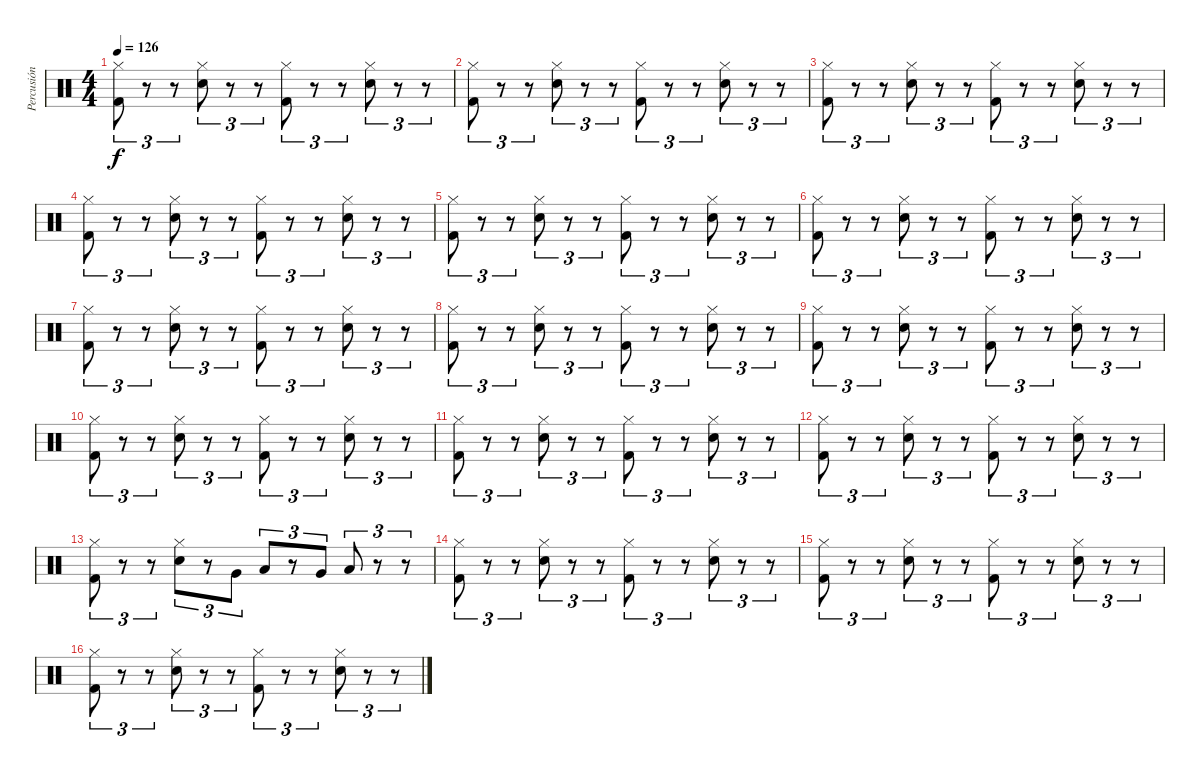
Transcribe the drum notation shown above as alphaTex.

\track ("Percusión" "Percusión") {instrument percussion}
\staff {score}
\articulation defaults
\ts (4 4)
\tempo 126
\clef neutral
\ks c
("Hi-Hat (closed)" "Kick (hit) 2").8{tu (3 2) dy f} r.8{tu (3 2)} r.8{tu (3 2)} ("Hi-Hat (closed)" "Electric Snare (hit)").8{tu (3 2)} r.8{tu (3 2)} r.8{tu (3 2)} ("Hi-Hat (closed)" "Kick (hit) 2").8{tu (3 2)} r.8{tu (3 2)} r.8{tu (3 2)} ("Hi-Hat (closed)" "Electric Snare (hit)").8{tu (3 2)} r.8{tu (3 2)} r.8{tu (3 2)} |
("Hi-Hat (closed)" "Kick (hit) 2").8{tu (3 2)} r.8{tu (3 2)} r.8{tu (3 2)} ("Hi-Hat (closed)" "Electric Snare (hit)").8{tu (3 2)} r.8{tu (3 2)} r.8{tu (3 2)} ("Hi-Hat (closed)" "Kick (hit) 2").8{tu (3 2)} r.8{tu (3 2)} r.8{tu (3 2)} ("Hi-Hat (closed)" "Electric Snare (hit)").8{tu (3 2)} r.8{tu (3 2)} r.8{tu (3 2)} |
("Hi-Hat (closed)" "Kick (hit) 2").8{tu (3 2)} r.8{tu (3 2)} r.8{tu (3 2)} ("Hi-Hat (closed)" "Electric Snare (hit)").8{tu (3 2)} r.8{tu (3 2)} r.8{tu (3 2)} ("Hi-Hat (closed)" "Kick (hit) 2").8{tu (3 2)} r.8{tu (3 2)} r.8{tu (3 2)} ("Hi-Hat (closed)" "Electric Snare (hit)").8{tu (3 2)} r.8{tu (3 2)} r.8{tu (3 2)} |
("Hi-Hat (closed)" "Kick (hit) 2").8{tu (3 2)} r.8{tu (3 2)} r.8{tu (3 2)} ("Hi-Hat (closed)" "Electric Snare (hit)").8{tu (3 2)} r.8{tu (3 2)} r.8{tu (3 2)} ("Hi-Hat (closed)" "Kick (hit) 2").8{tu (3 2)} r.8{tu (3 2)} r.8{tu (3 2)} ("Hi-Hat (closed)" "Electric Snare (hit)").8{tu (3 2)} r.8{tu (3 2)} r.8{tu (3 2)} |
("Hi-Hat (closed)" "Kick (hit) 2").8{tu (3 2)} r.8{tu (3 2)} r.8{tu (3 2)} ("Hi-Hat (closed)" "Electric Snare (hit)").8{tu (3 2)} r.8{tu (3 2)} r.8{tu (3 2)} ("Hi-Hat (closed)" "Kick (hit) 2").8{tu (3 2)} r.8{tu (3 2)} r.8{tu (3 2)} ("Hi-Hat (closed)" "Electric Snare (hit)").8{tu (3 2)} r.8{tu (3 2)} r.8{tu (3 2)} |
("Hi-Hat (closed)" "Kick (hit) 2").8{tu (3 2)} r.8{tu (3 2)} r.8{tu (3 2)} ("Hi-Hat (closed)" "Electric Snare (hit)").8{tu (3 2)} r.8{tu (3 2)} r.8{tu (3 2)} ("Hi-Hat (closed)" "Kick (hit) 2").8{tu (3 2)} r.8{tu (3 2)} r.8{tu (3 2)} ("Hi-Hat (closed)" "Electric Snare (hit)").8{tu (3 2)} r.8{tu (3 2)} r.8{tu (3 2)} |
("Hi-Hat (closed)" "Kick (hit) 2").8{tu (3 2)} r.8{tu (3 2)} r.8{tu (3 2)} ("Hi-Hat (closed)" "Electric Snare (hit)").8{tu (3 2)} r.8{tu (3 2)} r.8{tu (3 2)} ("Hi-Hat (closed)" "Kick (hit) 2").8{tu (3 2)} r.8{tu (3 2)} r.8{tu (3 2)} ("Hi-Hat (closed)" "Electric Snare (hit)").8{tu (3 2)} r.8{tu (3 2)} r.8{tu (3 2)} |
("Hi-Hat (closed)" "Kick (hit) 2").8{tu (3 2)} r.8{tu (3 2)} r.8{tu (3 2)} ("Hi-Hat (closed)" "Electric Snare (hit)").8{tu (3 2)} r.8{tu (3 2)} r.8{tu (3 2)} ("Hi-Hat (closed)" "Kick (hit) 2").8{tu (3 2)} r.8{tu (3 2)} r.8{tu (3 2)} ("Hi-Hat (closed)" "Electric Snare (hit)").8{tu (3 2)} r.8{tu (3 2)} r.8{tu (3 2)} |
("Hi-Hat (closed)" "Kick (hit) 2").8{tu (3 2)} r.8{tu (3 2)} r.8{tu (3 2)} ("Hi-Hat (closed)" "Electric Snare (hit)").8{tu (3 2)} r.8{tu (3 2)} r.8{tu (3 2)} ("Hi-Hat (closed)" "Kick (hit) 2").8{tu (3 2)} r.8{tu (3 2)} r.8{tu (3 2)} ("Hi-Hat (closed)" "Electric Snare (hit)").8{tu (3 2)} r.8{tu (3 2)} r.8{tu (3 2)} |
("Hi-Hat (closed)" "Kick (hit) 2").8{tu (3 2)} r.8{tu (3 2)} r.8{tu (3 2)} ("Hi-Hat (closed)" "Electric Snare (hit)").8{tu (3 2)} r.8{tu (3 2)} r.8{tu (3 2)} ("Hi-Hat (closed)" "Kick (hit) 2").8{tu (3 2)} r.8{tu (3 2)} r.8{tu (3 2)} ("Hi-Hat (closed)" "Electric Snare (hit)").8{tu (3 2)} r.8{tu (3 2)} r.8{tu (3 2)} |
("Hi-Hat (closed)" "Kick (hit) 2").8{tu (3 2)} r.8{tu (3 2)} r.8{tu (3 2)} ("Hi-Hat (closed)" "Electric Snare (hit)").8{tu (3 2)} r.8{tu (3 2)} r.8{tu (3 2)} ("Hi-Hat (closed)" "Kick (hit) 2").8{tu (3 2)} r.8{tu (3 2)} r.8{tu (3 2)} ("Hi-Hat (closed)" "Electric Snare (hit)").8{tu (3 2)} r.8{tu (3 2)} r.8{tu (3 2)} |
("Hi-Hat (closed)" "Kick (hit) 2").8{tu (3 2)} r.8{tu (3 2)} r.8{tu (3 2)} ("Hi-Hat (closed)" "Electric Snare (hit)").8{tu (3 2)} r.8{tu (3 2)} r.8{tu (3 2)} ("Hi-Hat (closed)" "Kick (hit) 2").8{tu (3 2)} r.8{tu (3 2)} r.8{tu (3 2)} ("Hi-Hat (closed)" "Electric Snare (hit)").8{tu (3 2)} r.8{tu (3 2)} r.8{tu (3 2)} |
("Hi-Hat (closed)" "Kick (hit) 2").8{tu (3 2)} r.8{tu (3 2)} r.8{tu (3 2)} ("Hi-Hat (closed)" "Electric Snare (hit)").8{tu (3 2)} r.8{tu (3 2)} "Very Low Tom (hit)".8{tu (3 2)} "Low Floor Tom (hit)".8{tu (3 2)} r.8{tu (3 2)} "Very Low Tom (hit)".8{tu (3 2)} "Low Floor Tom (hit)".8{tu (3 2)} r.8{tu (3 2)} r.8{tu (3 2)} |
("Hi-Hat (closed)" "Kick (hit) 2").8{tu (3 2)} r.8{tu (3 2)} r.8{tu (3 2)} ("Hi-Hat (closed)" "Electric Snare (hit)").8{tu (3 2)} r.8{tu (3 2)} r.8{tu (3 2)} ("Hi-Hat (closed)" "Kick (hit) 2").8{tu (3 2)} r.8{tu (3 2)} r.8{tu (3 2)} ("Hi-Hat (closed)" "Electric Snare (hit)").8{tu (3 2)} r.8{tu (3 2)} r.8{tu (3 2)} |
("Hi-Hat (closed)" "Kick (hit) 2").8{tu (3 2)} r.8{tu (3 2)} r.8{tu (3 2)} ("Hi-Hat (closed)" "Electric Snare (hit)").8{tu (3 2)} r.8{tu (3 2)} r.8{tu (3 2)} ("Hi-Hat (closed)" "Kick (hit) 2").8{tu (3 2)} r.8{tu (3 2)} r.8{tu (3 2)} ("Hi-Hat (closed)" "Electric Snare (hit)").8{tu (3 2)} r.8{tu (3 2)} r.8{tu (3 2)} |
("Hi-Hat (closed)" "Kick (hit) 2").8{tu (3 2)} r.8{tu (3 2)} r.8{tu (3 2)} ("Hi-Hat (closed)" "Electric Snare (hit)").8{tu (3 2)} r.8{tu (3 2)} r.8{tu (3 2)} ("Hi-Hat (closed)" "Kick (hit) 2").8{tu (3 2)} r.8{tu (3 2)} r.8{tu (3 2)} ("Hi-Hat (closed)" "Electric Snare (hit)").8{tu (3 2)} r.8{tu (3 2)} r.8{tu (3 2)}
